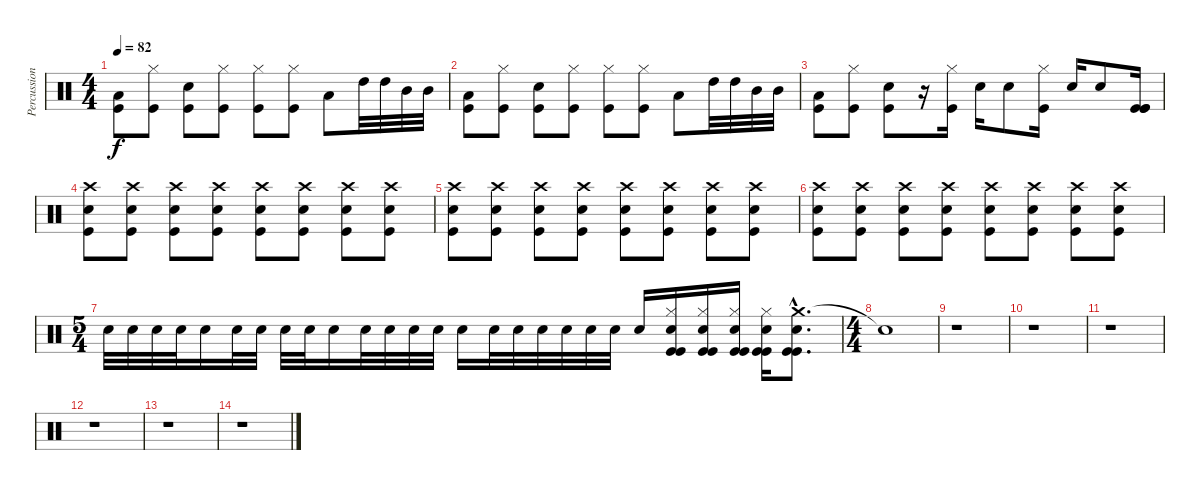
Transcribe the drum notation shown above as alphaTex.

\track ("Percussion" "Percussion") {instrument percussion}
\staff {score}
\articulation defaults
\ts (4 4)
\tempo 82
\clef neutral
\ks c
("Low Tom (hit)" "Kick (hit)").8{dy f} ("Hi-Hat (closed)" "Kick (hit)").8 ("Snare (hit) 2" "Kick (hit)").8 ("Hi-Hat (closed)" "Kick (hit)").8 ("Hi-Hat (closed)" "Kick (hit)").8 ("Hi-Hat (closed)" "Kick (hit)").8 "Low Tom (hit)".8 "High Tom (hit)".32 "High Tom (hit)".32 "Mid Tom (hit)".32 "Mid Tom (hit)".32 |
("Low Tom (hit)" "Kick (hit)").8 ("Hi-Hat (closed)" "Kick (hit)").8 ("Snare (hit) 2" "Kick (hit)").8 ("Hi-Hat (closed)" "Kick (hit)").8 ("Hi-Hat (closed)" "Kick (hit)").8 ("Hi-Hat (closed)" "Kick (hit)").8 "Low Tom (hit)".8 "High Tom (hit)".32 "High Tom (hit)".32 "Mid Tom (hit)".32 "Mid Tom (hit)".32 |
("Low Tom (hit)" "Kick (hit)").8 ("Hi-Hat (closed)" "Kick (hit)").8 ("Snare (hit) 2" "Kick (hit)").8 r.16 ("Hi-Hat (closed)" "Kick (hit)").16 "Snare (hit) 2".16 "Snare (hit) 2".8 ("Hi-Hat (closed)" "Kick (hit)").16 "Snare (hit) 2".16 "Snare (hit) 2".8 ("Kick (hit)" "Kick (hit)" "Kick (hit)").16 |
("Crash high (hit)" "Snare (hit) 2" "Kick (hit)").8 ("Crash high (hit)" "Snare (hit) 2" "Kick (hit)").8 ("Crash high (hit)" "Snare (hit) 2" "Kick (hit)").8 ("Crash high (hit)" "Snare (hit) 2" "Kick (hit)").8 ("Crash high (hit)" "Snare (hit) 2" "Kick (hit)").8 ("Crash high (hit)" "Snare (hit) 2" "Kick (hit)").8 ("Crash high (hit)" "Snare (hit) 2" "Kick (hit)").8 ("Crash high (hit)" "Snare (hit) 2" "Kick (hit)").8 |
("Crash high (hit)" "Snare (hit) 2" "Kick (hit)").8 ("Crash high (hit)" "Snare (hit) 2" "Kick (hit)").8 ("Crash high (hit)" "Snare (hit) 2" "Kick (hit)").8 ("Crash high (hit)" "Snare (hit) 2" "Kick (hit)").8 ("Crash high (hit)" "Snare (hit) 2" "Kick (hit)").8 ("Crash high (hit)" "Snare (hit) 2" "Kick (hit)").8 ("Crash high (hit)" "Snare (hit) 2" "Kick (hit)").8 ("Crash high (hit)" "Snare (hit) 2" "Kick (hit)").8 |
("Crash high (hit)" "Snare (hit) 2" "Kick (hit)").8 ("Crash high (hit)" "Snare (hit) 2" "Kick (hit)").8 ("Crash high (hit)" "Snare (hit) 2" "Kick (hit)").8 ("Crash high (hit)" "Snare (hit) 2" "Kick (hit)").8 ("Crash high (hit)" "Snare (hit) 2" "Kick (hit)").8 ("Crash high (hit)" "Snare (hit) 2" "Kick (hit)").8 ("Crash high (hit)" "Snare (hit) 2" "Kick (hit)").8 ("Crash high (hit)" "Snare (hit) 2" "Kick (hit)").8 |
\ts (5 4)
"Snare (hit) 2".32 "Snare (hit) 2".32 "Snare (hit) 2".32 "Snare (hit) 2".32 "Snare (hit) 2".16 "Snare (hit) 2".32 "Snare (hit) 2".32 "Snare (hit) 2".32 "Snare (hit) 2".32 "Snare (hit) 2".16 "Snare (hit) 2".32 "Snare (hit) 2".32 "Snare (hit) 2".32 "Snare (hit) 2".32 "Snare (hit) 2".16 "Snare (hit) 2".32 "Snare (hit) 2".32 "Snare (hit) 2".32 "Snare (hit) 2".32 "Snare (hit) 2".32 "Snare (hit) 2".32 "Snare (hit) 2".16 ("Hi-Hat (closed)" "Snare (hit) 2" "Kick (hit)" "Kick (hit)").16 ("Hi-Hat (closed)" "Snare (hit) 2" "Kick (hit)" "Kick (hit)").16 ("Hi-Hat (closed)" "Snare (hit) 2" "Kick (hit)" "Kick (hit)").16 ("Hi-Hat (closed)" "Snare (hit) 2" "Kick (hit)" "Kick (hit)").16 ("Crash medium (hit)"{hac} "Snare (hit) 2"{hac} "Kick (hit)"{hac} "Kick (hit)"{hac}).8{d} |
\ts (4 4)
"Snare (hit)"{t}.1 |
r.1 |
r.1 |
r.1 |
r.1 |
r.1 |
r.1
